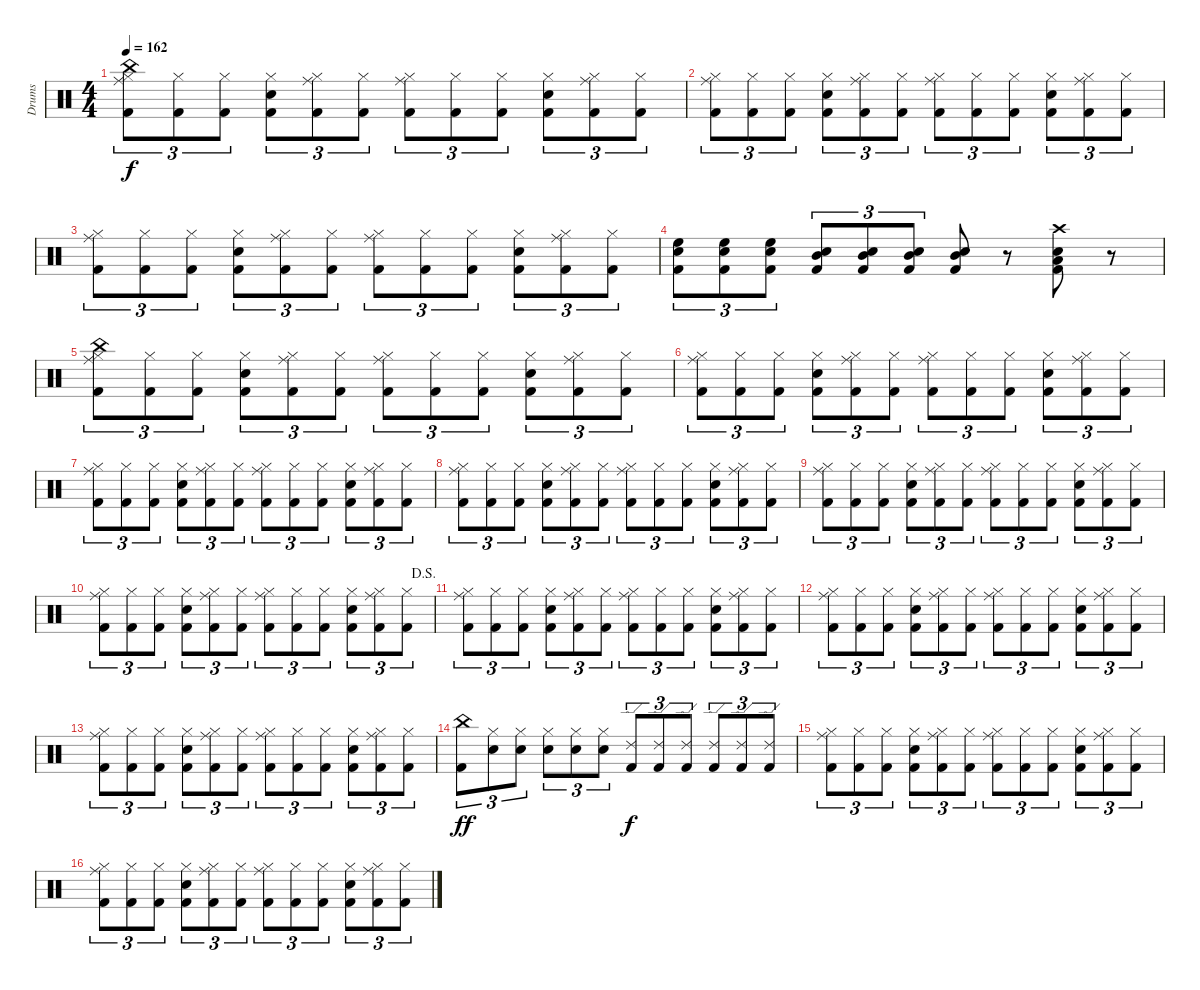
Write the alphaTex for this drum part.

\track ("Drums" "Drums") {instrument percussion}
\staff {score}
\articulation defaults
\ts (4 4)
\tempo 162
\clef neutral
\ks c
("Kick (hit) 2" "Ride (middle)" "China (hit)" "Hi-Hat (closed)").8{tu (3 2) dy f} ("Kick (hit) 2" "Hi-Hat (closed)").8{tu (3 2)} ("Kick (hit) 2" "Hi-Hat (closed)").8{tu (3 2)} ("Kick (hit) 2" "Electric Snare (hit)" "Hi-Hat (closed)").8{tu (3 2)} ("Kick (hit) 2" "Ride (middle)" "Hi-Hat (closed)").8{tu (3 2)} ("Kick (hit) 2" "Hi-Hat (closed)").8{tu (3 2)} ("Kick (hit) 2" "Ride (middle)" "Hi-Hat (closed)").8{tu (3 2)} ("Kick (hit) 2" "Hi-Hat (closed)").8{tu (3 2)} ("Kick (hit) 2" "Hi-Hat (closed)").8{tu (3 2)} ("Kick (hit) 2" "Electric Snare (hit)" "Hi-Hat (closed)").8{tu (3 2)} ("Kick (hit) 2" "Ride (middle)" "Hi-Hat (closed)").8{tu (3 2)} ("Kick (hit) 2" "Hi-Hat (closed)").8{tu (3 2)} |
("Kick (hit) 2" "Ride (middle)" "Hi-Hat (closed)").8{tu (3 2)} ("Kick (hit) 2" "Hi-Hat (closed)").8{tu (3 2)} ("Kick (hit) 2" "Hi-Hat (closed)").8{tu (3 2)} ("Kick (hit) 2" "Electric Snare (hit)" "Hi-Hat (closed)").8{tu (3 2)} ("Kick (hit) 2" "Ride (middle)" "Hi-Hat (closed)").8{tu (3 2)} ("Kick (hit) 2" "Hi-Hat (closed)").8{tu (3 2)} ("Kick (hit) 2" "Ride (middle)" "Hi-Hat (closed)").8{tu (3 2)} ("Kick (hit) 2" "Hi-Hat (closed)").8{tu (3 2)} ("Kick (hit) 2" "Hi-Hat (closed)").8{tu (3 2)} ("Kick (hit) 2" "Electric Snare (hit)" "Hi-Hat (closed)").8{tu (3 2)} ("Kick (hit) 2" "Ride (middle)" "Hi-Hat (closed)").8{tu (3 2)} ("Kick (hit) 2" "Hi-Hat (closed)").8{tu (3 2)} |
("Kick (hit) 2" "Ride (middle)" "Hi-Hat (closed)").8{tu (3 2)} ("Kick (hit) 2" "Hi-Hat (closed)").8{tu (3 2)} ("Kick (hit) 2" "Hi-Hat (closed)").8{tu (3 2)} ("Kick (hit) 2" "Electric Snare (hit)" "Hi-Hat (closed)").8{tu (3 2)} ("Kick (hit) 2" "Ride (middle)" "Hi-Hat (closed)").8{tu (3 2)} ("Kick (hit) 2" "Hi-Hat (closed)").8{tu (3 2)} ("Kick (hit) 2" "Ride (middle)" "Hi-Hat (closed)").8{tu (3 2)} ("Kick (hit) 2" "Hi-Hat (closed)").8{tu (3 2)} ("Kick (hit) 2" "Hi-Hat (closed)").8{tu (3 2)} ("Kick (hit) 2" "Electric Snare (hit)" "Hi-Hat (closed)").8{tu (3 2)} ("Kick (hit) 2" "Ride (middle)" "Hi-Hat (closed)").8{tu (3 2)} ("Kick (hit) 2" "Hi-Hat (closed)").8{tu (3 2)} |
("Kick (hit) 2" "Electric Snare (hit)" "High Floor Tom (hit)").8{tu (3 2)} ("Kick (hit) 2" "Electric Snare (hit)" "High Floor Tom (hit)").8{tu (3 2)} ("Kick (hit) 2" "Electric Snare (hit)" "High Floor Tom (hit)").8{tu (3 2)} ("Kick (hit) 2" "Electric Snare (hit)" "Mid Tom (hit)").8{tu (3 2)} ("Kick (hit) 2" "Electric Snare (hit)" "Mid Tom (hit)").8{tu (3 2)} ("Kick (hit) 2" "Electric Snare (hit)" "Mid Tom (hit)").8{tu (3 2)} ("Kick (hit) 2" "Electric Snare (hit)" "Mid Tom (hit)").8 r.8 ("Kick (hit) 2" "Electric Snare (hit)" "Low Tom (hit)" "Crash high (hit)").8 r.8 |
("Kick (hit) 2" "Ride (middle)" "China (hit)" "Hi-Hat (closed)").8{tu (3 2)} ("Kick (hit) 2" "Hi-Hat (closed)").8{tu (3 2)} ("Kick (hit) 2" "Hi-Hat (closed)").8{tu (3 2)} ("Kick (hit) 2" "Electric Snare (hit)" "Hi-Hat (closed)").8{tu (3 2)} ("Kick (hit) 2" "Ride (middle)" "Hi-Hat (closed)").8{tu (3 2)} ("Kick (hit) 2" "Hi-Hat (closed)").8{tu (3 2)} ("Kick (hit) 2" "Ride (middle)" "Hi-Hat (closed)").8{tu (3 2)} ("Kick (hit) 2" "Hi-Hat (closed)").8{tu (3 2)} ("Kick (hit) 2" "Hi-Hat (closed)").8{tu (3 2)} ("Kick (hit) 2" "Electric Snare (hit)" "Hi-Hat (closed)").8{tu (3 2)} ("Kick (hit) 2" "Ride (middle)" "Hi-Hat (closed)").8{tu (3 2)} ("Kick (hit) 2" "Hi-Hat (closed)").8{tu (3 2)} |
("Kick (hit) 2" "Ride (middle)" "Hi-Hat (closed)").8{tu (3 2)} ("Kick (hit) 2" "Hi-Hat (closed)").8{tu (3 2)} ("Kick (hit) 2" "Hi-Hat (closed)").8{tu (3 2)} ("Kick (hit) 2" "Electric Snare (hit)" "Hi-Hat (closed)").8{tu (3 2)} ("Kick (hit) 2" "Ride (middle)" "Hi-Hat (closed)").8{tu (3 2)} ("Kick (hit) 2" "Hi-Hat (closed)").8{tu (3 2)} ("Kick (hit) 2" "Ride (middle)" "Hi-Hat (closed)").8{tu (3 2)} ("Kick (hit) 2" "Hi-Hat (closed)").8{tu (3 2)} ("Kick (hit) 2" "Hi-Hat (closed)").8{tu (3 2)} ("Kick (hit) 2" "Electric Snare (hit)" "Hi-Hat (closed)").8{tu (3 2)} ("Kick (hit) 2" "Ride (middle)" "Hi-Hat (closed)").8{tu (3 2)} ("Kick (hit) 2" "Hi-Hat (closed)").8{tu (3 2)} |
("Kick (hit) 2" "Ride (middle)" "Hi-Hat (closed)").8{tu (3 2)} ("Kick (hit) 2" "Hi-Hat (closed)").8{tu (3 2)} ("Kick (hit) 2" "Hi-Hat (closed)").8{tu (3 2)} ("Kick (hit) 2" "Electric Snare (hit)" "Hi-Hat (closed)").8{tu (3 2)} ("Kick (hit) 2" "Ride (middle)" "Hi-Hat (closed)").8{tu (3 2)} ("Kick (hit) 2" "Hi-Hat (closed)").8{tu (3 2)} ("Kick (hit) 2" "Ride (middle)" "Hi-Hat (closed)").8{tu (3 2)} ("Kick (hit) 2" "Hi-Hat (closed)").8{tu (3 2)} ("Kick (hit) 2" "Hi-Hat (closed)").8{tu (3 2)} ("Kick (hit) 2" "Electric Snare (hit)" "Hi-Hat (closed)").8{tu (3 2)} ("Kick (hit) 2" "Ride (middle)" "Hi-Hat (closed)").8{tu (3 2)} ("Kick (hit) 2" "Hi-Hat (closed)").8{tu (3 2)} |
("Kick (hit) 2" "Ride (middle)" "Hi-Hat (closed)").8{tu (3 2)} ("Kick (hit) 2" "Hi-Hat (closed)").8{tu (3 2)} ("Kick (hit) 2" "Hi-Hat (closed)").8{tu (3 2)} ("Kick (hit) 2" "Electric Snare (hit)" "Hi-Hat (closed)").8{tu (3 2)} ("Kick (hit) 2" "Ride (middle)" "Hi-Hat (closed)").8{tu (3 2)} ("Kick (hit) 2" "Hi-Hat (closed)").8{tu (3 2)} ("Kick (hit) 2" "Ride (middle)" "Hi-Hat (closed)").8{tu (3 2)} ("Kick (hit) 2" "Hi-Hat (closed)").8{tu (3 2)} ("Kick (hit) 2" "Hi-Hat (closed)").8{tu (3 2)} ("Kick (hit) 2" "Electric Snare (hit)" "Hi-Hat (closed)").8{tu (3 2)} ("Kick (hit) 2" "Ride (middle)" "Hi-Hat (closed)").8{tu (3 2)} ("Kick (hit) 2" "Hi-Hat (closed)").8{tu (3 2)} |
("Kick (hit) 2" "Ride (middle)" "Hi-Hat (closed)").8{tu (3 2)} ("Kick (hit) 2" "Hi-Hat (closed)").8{tu (3 2)} ("Kick (hit) 2" "Hi-Hat (closed)").8{tu (3 2)} ("Kick (hit) 2" "Electric Snare (hit)" "Hi-Hat (closed)").8{tu (3 2)} ("Kick (hit) 2" "Ride (middle)" "Hi-Hat (closed)").8{tu (3 2)} ("Kick (hit) 2" "Hi-Hat (closed)").8{tu (3 2)} ("Kick (hit) 2" "Ride (middle)" "Hi-Hat (closed)").8{tu (3 2)} ("Kick (hit) 2" "Hi-Hat (closed)").8{tu (3 2)} ("Kick (hit) 2" "Hi-Hat (closed)").8{tu (3 2)} ("Kick (hit) 2" "Electric Snare (hit)" "Hi-Hat (closed)").8{tu (3 2)} ("Kick (hit) 2" "Ride (middle)" "Hi-Hat (closed)").8{tu (3 2)} ("Kick (hit) 2" "Hi-Hat (closed)").8{tu (3 2)} |
\jump dalsegno
("Kick (hit) 2" "Ride (middle)" "Hi-Hat (closed)").8{tu (3 2)} ("Kick (hit) 2" "Hi-Hat (closed)").8{tu (3 2)} ("Kick (hit) 2" "Hi-Hat (closed)").8{tu (3 2)} ("Kick (hit) 2" "Electric Snare (hit)" "Hi-Hat (closed)").8{tu (3 2)} ("Kick (hit) 2" "Ride (middle)" "Hi-Hat (closed)").8{tu (3 2)} ("Kick (hit) 2" "Hi-Hat (closed)").8{tu (3 2)} ("Kick (hit) 2" "Ride (middle)" "Hi-Hat (closed)").8{tu (3 2)} ("Kick (hit) 2" "Hi-Hat (closed)").8{tu (3 2)} ("Kick (hit) 2" "Hi-Hat (closed)").8{tu (3 2)} ("Kick (hit) 2" "Electric Snare (hit)" "Hi-Hat (closed)").8{tu (3 2)} ("Kick (hit) 2" "Ride (middle)" "Hi-Hat (closed)").8{tu (3 2)} ("Kick (hit) 2" "Hi-Hat (closed)").8{tu (3 2)} |
("Kick (hit) 2" "Ride (middle)" "Hi-Hat (closed)").8{tu (3 2)} ("Kick (hit) 2" "Hi-Hat (closed)").8{tu (3 2)} ("Kick (hit) 2" "Hi-Hat (closed)").8{tu (3 2)} ("Kick (hit) 2" "Electric Snare (hit)" "Hi-Hat (closed)").8{tu (3 2)} ("Kick (hit) 2" "Ride (middle)" "Hi-Hat (closed)").8{tu (3 2)} ("Kick (hit) 2" "Hi-Hat (closed)").8{tu (3 2)} ("Kick (hit) 2" "Ride (middle)" "Hi-Hat (closed)").8{tu (3 2)} ("Kick (hit) 2" "Hi-Hat (closed)").8{tu (3 2)} ("Kick (hit) 2" "Hi-Hat (closed)").8{tu (3 2)} ("Kick (hit) 2" "Electric Snare (hit)" "Hi-Hat (closed)").8{tu (3 2)} ("Kick (hit) 2" "Ride (middle)" "Hi-Hat (closed)").8{tu (3 2)} ("Kick (hit) 2" "Hi-Hat (closed)").8{tu (3 2)} |
("Kick (hit) 2" "Ride (middle)" "Hi-Hat (closed)").8{tu (3 2)} ("Kick (hit) 2" "Hi-Hat (closed)").8{tu (3 2)} ("Kick (hit) 2" "Hi-Hat (closed)").8{tu (3 2)} ("Kick (hit) 2" "Electric Snare (hit)" "Hi-Hat (closed)").8{tu (3 2)} ("Kick (hit) 2" "Ride (middle)" "Hi-Hat (closed)").8{tu (3 2)} ("Kick (hit) 2" "Hi-Hat (closed)").8{tu (3 2)} ("Kick (hit) 2" "Ride (middle)" "Hi-Hat (closed)").8{tu (3 2)} ("Kick (hit) 2" "Hi-Hat (closed)").8{tu (3 2)} ("Kick (hit) 2" "Hi-Hat (closed)").8{tu (3 2)} ("Kick (hit) 2" "Electric Snare (hit)" "Hi-Hat (closed)").8{tu (3 2)} ("Kick (hit) 2" "Ride (middle)" "Hi-Hat (closed)").8{tu (3 2)} ("Kick (hit) 2" "Hi-Hat (closed)").8{tu (3 2)} |
("Kick (hit) 2" "Ride (middle)" "Hi-Hat (closed)").8{tu (3 2)} ("Kick (hit) 2" "Hi-Hat (closed)").8{tu (3 2)} ("Kick (hit) 2" "Hi-Hat (closed)").8{tu (3 2)} ("Kick (hit) 2" "Electric Snare (hit)" "Hi-Hat (closed)").8{tu (3 2)} ("Kick (hit) 2" "Ride (middle)" "Hi-Hat (closed)").8{tu (3 2)} ("Kick (hit) 2" "Hi-Hat (closed)").8{tu (3 2)} ("Kick (hit) 2" "Ride (middle)" "Hi-Hat (closed)").8{tu (3 2)} ("Kick (hit) 2" "Hi-Hat (closed)").8{tu (3 2)} ("Kick (hit) 2" "Hi-Hat (closed)").8{tu (3 2)} ("Kick (hit) 2" "Electric Snare (hit)" "Hi-Hat (closed)").8{tu (3 2)} ("Kick (hit) 2" "Ride (middle)" "Hi-Hat (closed)").8{tu (3 2)} ("Kick (hit) 2" "Hi-Hat (closed)").8{tu (3 2)} |
("Kick (hit) 2" "China (hit)").8{tu (3 2) dy ff} ("Electric Snare (hit)" "Hi-Hat (closed)").8{tu (3 2)} ("Electric Snare (hit)" "Hi-Hat (closed)").8{tu (3 2)} ("Electric Snare (hit)" "Hi-Hat (closed)").8{tu (3 2)} ("Electric Snare (hit)" "Hi-Hat (closed)").8{tu (3 2)} ("Electric Snare (hit)" "Hi-Hat (closed)").8{tu (3 2)} ("Kick (hit) 2" "Ride (edge) 2").8{tu (3 2) dy f} ("Kick (hit) 2" "Ride (edge) 2").8{tu (3 2)} ("Kick (hit) 2" "Ride (edge) 2").8{tu (3 2)} ("Kick (hit) 2" "Ride (edge) 2").8{tu (3 2)} ("Kick (hit) 2" "Ride (edge) 2").8{tu (3 2)} ("Kick (hit) 2" "Ride (edge) 2").8{tu (3 2)} |
("Kick (hit) 2" "Ride (middle)" "Hi-Hat (closed)").8{tu (3 2)} ("Kick (hit) 2" "Hi-Hat (closed)").8{tu (3 2)} ("Kick (hit) 2" "Hi-Hat (closed)").8{tu (3 2)} ("Kick (hit) 2" "Electric Snare (hit)" "Hi-Hat (closed)").8{tu (3 2)} ("Kick (hit) 2" "Ride (middle)" "Hi-Hat (closed)").8{tu (3 2)} ("Kick (hit) 2" "Hi-Hat (closed)").8{tu (3 2)} ("Kick (hit) 2" "Ride (middle)" "Hi-Hat (closed)").8{tu (3 2)} ("Kick (hit) 2" "Hi-Hat (closed)").8{tu (3 2)} ("Kick (hit) 2" "Hi-Hat (closed)").8{tu (3 2)} ("Kick (hit) 2" "Electric Snare (hit)" "Hi-Hat (closed)").8{tu (3 2)} ("Kick (hit) 2" "Ride (middle)" "Hi-Hat (closed)").8{tu (3 2)} ("Kick (hit) 2" "Hi-Hat (closed)").8{tu (3 2)} |
("Kick (hit) 2" "Ride (middle)" "Hi-Hat (closed)").8{tu (3 2)} ("Kick (hit) 2" "Hi-Hat (closed)").8{tu (3 2)} ("Kick (hit) 2" "Hi-Hat (closed)").8{tu (3 2)} ("Kick (hit) 2" "Electric Snare (hit)" "Hi-Hat (closed)").8{tu (3 2)} ("Kick (hit) 2" "Ride (middle)" "Hi-Hat (closed)").8{tu (3 2)} ("Kick (hit) 2" "Hi-Hat (closed)").8{tu (3 2)} ("Kick (hit) 2" "Ride (middle)" "Hi-Hat (closed)").8{tu (3 2)} ("Kick (hit) 2" "Hi-Hat (closed)").8{tu (3 2)} ("Kick (hit) 2" "Hi-Hat (closed)").8{tu (3 2)} ("Kick (hit) 2" "Electric Snare (hit)" "Hi-Hat (closed)").8{tu (3 2)} ("Kick (hit) 2" "Ride (middle)" "Hi-Hat (closed)").8{tu (3 2)} ("Kick (hit) 2" "Hi-Hat (closed)").8{tu (3 2)}
